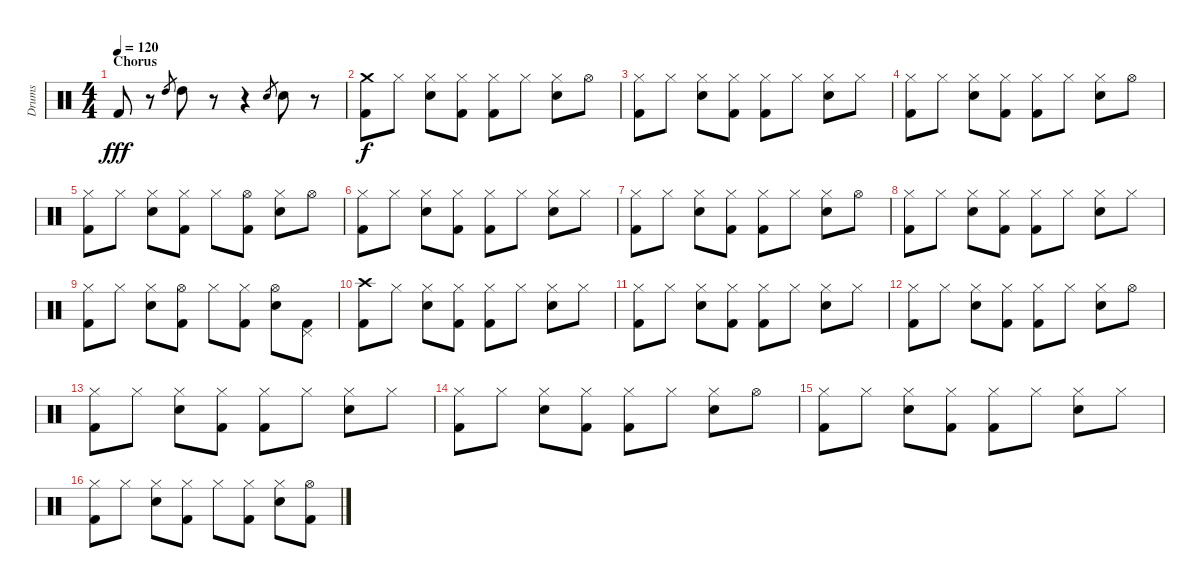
\track ("Drums" "Drums") {instrument percussion}
\staff {score}
\articulation defaults
\ts (4 4)
\section ("" "Chorus")
\tempo 120
\clef neutral
\ks c "Kick (hit) 2".8{dy fff}
r.8 "High Tom (hit)".8{gr} "High Tom (hit)".8 r.8 r.4 "Snare (hit) 2".8{gr} "Snare (hit) 2".8 r.8 |
("Crash medium (hit)" "Kick (hit) 2").8{dy f} "Hi-Hat (closed)".8 ("Hi-Hat (closed)" "Snare (hit) 2").8 ("Hi-Hat (closed)" "Kick (hit) 2").8 ("Hi-Hat (closed)" "Kick (hit) 2").8 "Hi-Hat (closed)".8 ("Hi-Hat (closed)" "Snare (hit) 2").8 "Hi-Hat (open)".8 |
("Hi-Hat (closed)" "Kick (hit) 2").8 "Hi-Hat (closed)".8 ("Hi-Hat (closed)" "Snare (hit) 2").8 ("Hi-Hat (closed)" "Kick (hit) 2").8 ("Hi-Hat (closed)" "Kick (hit) 2").8 "Hi-Hat (closed)".8 ("Hi-Hat (closed)" "Snare (hit) 2").8 "Hi-Hat (closed)".8 |
("Hi-Hat (closed)" "Kick (hit) 2").8 "Hi-Hat (closed)".8 ("Hi-Hat (closed)" "Snare (hit) 2").8 ("Hi-Hat (closed)" "Kick (hit) 2").8 ("Hi-Hat (closed)" "Kick (hit) 2").8 "Hi-Hat (closed)".8 ("Hi-Hat (closed)" "Snare (hit) 2").8 "Hi-Hat (open)".8 |
("Hi-Hat (closed)" "Kick (hit) 2").8 "Hi-Hat (closed)".8 ("Hi-Hat (closed)" "Snare (hit) 2").8 ("Hi-Hat (closed)" "Kick (hit) 2").8 "Hi-Hat (closed)".8 ("Hi-Hat (open)" "Kick (hit) 2").8 ("Hi-Hat (closed)" "Snare (hit) 2").8 "Hi-Hat (open)".8 |
("Hi-Hat (closed)" "Kick (hit) 2").8 "Hi-Hat (closed)".8 ("Hi-Hat (closed)" "Snare (hit) 2").8 ("Hi-Hat (closed)" "Kick (hit) 2").8 ("Hi-Hat (closed)" "Kick (hit) 2").8 "Hi-Hat (closed)".8 ("Hi-Hat (closed)" "Snare (hit) 2").8 "Hi-Hat (closed)".8 |
("Hi-Hat (closed)" "Kick (hit) 2").8 "Hi-Hat (closed)".8 ("Hi-Hat (closed)" "Snare (hit) 2").8 ("Hi-Hat (closed)" "Kick (hit) 2").8 ("Hi-Hat (closed)" "Kick (hit) 2").8 "Hi-Hat (closed)".8 ("Hi-Hat (closed)" "Snare (hit) 2").8 "Hi-Hat (open)".8 |
("Hi-Hat (closed)" "Kick (hit) 2").8 "Hi-Hat (closed)".8 ("Hi-Hat (closed)" "Snare (hit) 2").8 ("Hi-Hat (closed)" "Kick (hit) 2").8 ("Hi-Hat (closed)" "Kick (hit) 2").8 "Hi-Hat (closed)".8 ("Hi-Hat (closed)" "Snare (hit) 2").8 "Hi-Hat (closed)".8 |
("Hi-Hat (closed)" "Kick (hit) 2").8 "Hi-Hat (closed)".8 ("Hi-Hat (closed)" "Snare (hit) 2").8 ("Hi-Hat (open)" "Kick (hit) 2").8 "Hi-Hat (closed)".8 ("Hi-Hat (closed)" "Kick (hit) 2").8 ("Hi-Hat (open)" "Snare (hit) 2").8 ("Pedal Hi-Hat (hit)" "Kick (hit) 2").8 |
("Crash high (hit)" "Kick (hit) 2").8 "Hi-Hat (closed)".8 ("Hi-Hat (closed)" "Snare (hit) 2").8 ("Hi-Hat (closed)" "Kick (hit) 2").8 ("Hi-Hat (closed)" "Kick (hit) 2").8 "Hi-Hat (closed)".8 ("Hi-Hat (closed)" "Snare (hit) 2").8 "Hi-Hat (closed)".8 |
("Hi-Hat (closed)" "Kick (hit) 2").8 "Hi-Hat (closed)".8 ("Hi-Hat (closed)" "Snare (hit) 2").8 ("Hi-Hat (closed)" "Kick (hit) 2").8 ("Hi-Hat (closed)" "Kick (hit) 2").8 "Hi-Hat (closed)".8 ("Hi-Hat (closed)" "Snare (hit) 2").8 "Hi-Hat (closed)".8 |
("Hi-Hat (closed)" "Kick (hit) 2").8 "Hi-Hat (closed)".8 ("Hi-Hat (closed)" "Snare (hit) 2").8 ("Hi-Hat (closed)" "Kick (hit) 2").8 ("Hi-Hat (closed)" "Kick (hit) 2").8 "Hi-Hat (closed)".8 ("Hi-Hat (closed)" "Snare (hit) 2").8 "Hi-Hat (open)".8 |
("Hi-Hat (closed)" "Kick (hit) 2").8 "Hi-Hat (closed)".8 ("Hi-Hat (closed)" "Snare (hit) 2").8 ("Hi-Hat (closed)" "Kick (hit) 2").8 ("Hi-Hat (closed)" "Kick (hit) 2").8 "Hi-Hat (closed)".8 ("Hi-Hat (closed)" "Snare (hit) 2").8 "Hi-Hat (closed)".8 |
("Hi-Hat (closed)" "Kick (hit) 2").8 "Hi-Hat (closed)".8 ("Hi-Hat (closed)" "Snare (hit) 2").8 ("Hi-Hat (closed)" "Kick (hit) 2").8 ("Hi-Hat (closed)" "Kick (hit) 2").8 "Hi-Hat (closed)".8 ("Hi-Hat (closed)" "Snare (hit) 2").8 "Hi-Hat (open)".8 |
("Hi-Hat (closed)" "Kick (hit) 2").8 "Hi-Hat (closed)".8 ("Hi-Hat (closed)" "Snare (hit) 2").8 ("Hi-Hat (closed)" "Kick (hit) 2").8 ("Hi-Hat (closed)" "Kick (hit) 2").8 "Hi-Hat (closed)".8 ("Hi-Hat (closed)" "Snare (hit) 2").8 "Hi-Hat (closed)".8 |
("Hi-Hat (closed)" "Kick (hit) 2").8 "Hi-Hat (closed)".8 ("Hi-Hat (closed)" "Snare (hit) 2").8 ("Hi-Hat (closed)" "Kick (hit) 2").8 "Hi-Hat (closed)".8 ("Hi-Hat (closed)" "Kick (hit) 2").8 ("Hi-Hat (closed)" "Snare (hit) 2").8 ("Hi-Hat (open)" "Kick (hit) 2").8
